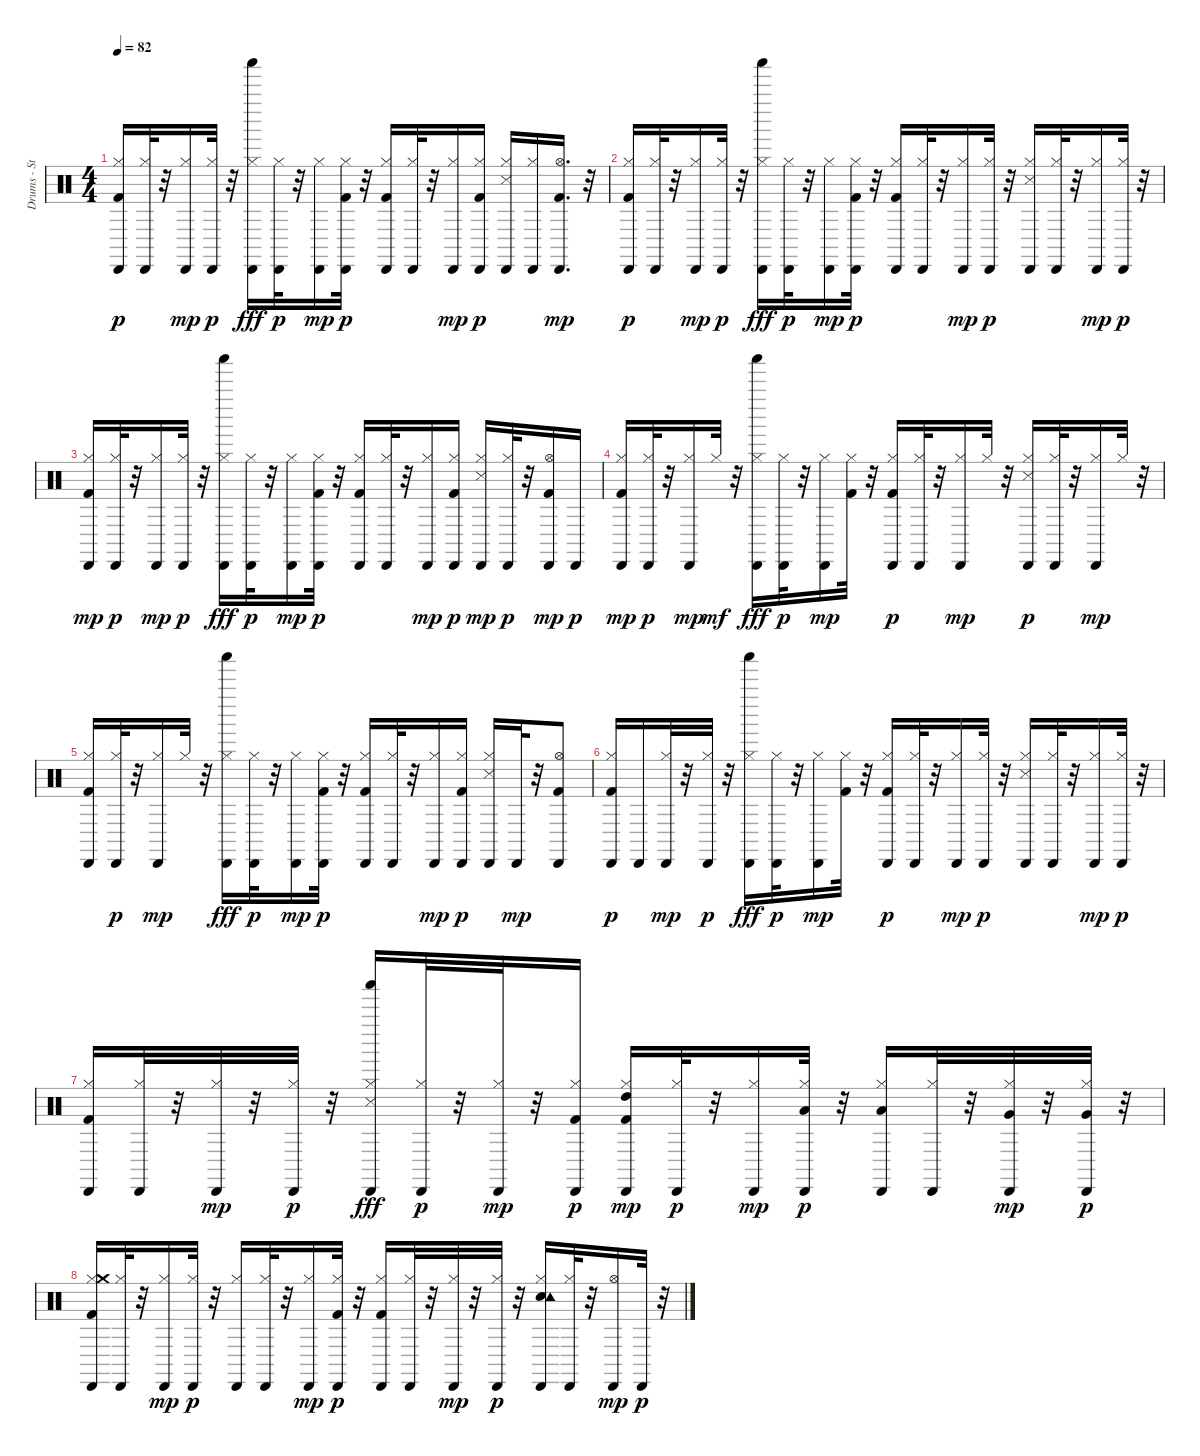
\track ("Drums - Standard" "Drums - St") {instrument percussion}
\staff {score}
\articulation defaults
\ts (4 4)
\tempo 82
\clef neutral
\ks c
("Kick (hit) 2" "Hi-Hat (closed)" "Cabasa (hit)").16{dy p} ("Hi-Hat (closed)" "Cabasa (hit)").32 r.32 ("Hi-Hat (closed)" "Cabasa (hit)").16{dy mp} ("Hi-Hat (closed)" "Cabasa (hit)").32{dy p} r.32 ("Hi-Hat (closed)" "Cabasa (hit)" "Shaker (hit)").16{dy fff} ("Hi-Hat (closed)" "Cabasa (hit)").32{dy p} r.32 ("Hi-Hat (closed)" "Cabasa (hit)").16{dy mp} ("Kick (hit) 2" "Hi-Hat (closed)" "Cabasa (hit)").32{dy p} r.32 ("Kick (hit) 2" "Hi-Hat (closed)" "Cabasa (hit)").16 ("Hi-Hat (closed)" "Cabasa (hit)").32 r.32 ("Hi-Hat (closed)" "Cabasa (hit)").16{dy mp} ("Kick (hit) 2" "Hi-Hat (closed)" "Cabasa (hit)").16{dy p} ("Snare (side stick) 3" "Hi-Hat (closed)" "Cabasa (hit)").16 ("Hi-Hat (closed)" "Cabasa (hit)").16 ("Kick (hit) 2" "Hi-Hat (open)" "Cabasa (hit)").16{d dy mp} r.32 |
("Kick (hit) 2" "Hi-Hat (closed)" "Cabasa (hit)").16{dy p} ("Hi-Hat (closed)" "Cabasa (hit)").32 r.32 ("Hi-Hat (closed)" "Cabasa (hit)").16{dy mp} ("Hi-Hat (closed)" "Cabasa (hit)").32{dy p} r.32 ("Hi-Hat (closed)" "Cabasa (hit)" "Shaker (hit)").16{dy fff} ("Hi-Hat (closed)" "Cabasa (hit)").32{dy p} r.32 ("Hi-Hat (closed)" "Cabasa (hit)").16{dy mp} ("Kick (hit) 2" "Hi-Hat (closed)" "Cabasa (hit)").32{dy p} r.32 ("Kick (hit) 2" "Hi-Hat (closed)" "Cabasa (hit)").16 ("Hi-Hat (closed)" "Cabasa (hit)").32 r.32 ("Hi-Hat (closed)" "Cabasa (hit)").16{dy mp} ("Hi-Hat (closed)" "Cabasa (hit)").32{dy p} r.32 ("Snare (side stick) 3" "Hi-Hat (closed)" "Cabasa (hit)").16 ("Hi-Hat (closed)" "Cabasa (hit)").32 r.32 ("Hi-Hat (closed)" "Cabasa (hit)").16{dy mp} ("Hi-Hat (closed)" "Cabasa (hit)").32{dy p} r.32 |
("Kick (hit) 2" "Hi-Hat (closed)" "Cabasa (hit)").16{dy mp} ("Hi-Hat (closed)" "Cabasa (hit)").32{dy p} r.32 ("Hi-Hat (closed)" "Cabasa (hit)").16{dy mp} ("Hi-Hat (closed)" "Cabasa (hit)").32{dy p} r.32 ("Hi-Hat (closed)" "Cabasa (hit)" "Shaker (hit)").16{dy fff} ("Hi-Hat (closed)" "Cabasa (hit)").32{dy p} r.32 ("Hi-Hat (closed)" "Cabasa (hit)").16{dy mp} ("Kick (hit) 2" "Hi-Hat (closed)" "Cabasa (hit)").32{dy p} r.32 ("Kick (hit) 2" "Hi-Hat (closed)" "Cabasa (hit)").16 ("Hi-Hat (closed)" "Cabasa (hit)").32 r.32 ("Hi-Hat (closed)" "Cabasa (hit)").16{dy mp} ("Kick (hit) 2" "Hi-Hat (closed)" "Cabasa (hit)").16{dy p} ("Snare (side stick) 3" "Hi-Hat (closed)" "Cabasa (hit)").16{dy mp} ("Hi-Hat (closed)" "Cabasa (hit)").32{dy p} r.32 ("Kick (hit) 2" "Hi-Hat (open)" "Cabasa (hit)").16{dy mp} "Cabasa (hit)".16{dy p} |
("Kick (hit) 2" "Hi-Hat (closed)" "Cabasa (hit)").16{dy mp} ("Hi-Hat (closed)" "Cabasa (hit)").32{dy p} r.32 ("Hi-Hat (closed)" "Cabasa (hit)").16{dy mp} "Hi-Hat (closed)".32{dy mf} r.32 ("Hi-Hat (closed)" "Cabasa (hit)" "Shaker (hit)").16{dy fff} ("Hi-Hat (closed)" "Cabasa (hit)").32{dy p} r.32 ("Hi-Hat (closed)" "Cabasa (hit)").16{dy mp} ("Kick (hit) 2" "Hi-Hat (closed)").32 r.32 ("Kick (hit) 2" "Hi-Hat (closed)" "Cabasa (hit)").16{dy p} ("Hi-Hat (closed)" "Cabasa (hit)").32 r.32 ("Hi-Hat (closed)" "Cabasa (hit)").16{dy mp} "Hi-Hat (closed)".32 r.32 ("Snare (side stick) 3" "Hi-Hat (closed)" "Cabasa (hit)").16{dy p} ("Hi-Hat (closed)" "Cabasa (hit)").32 r.32 ("Hi-Hat (closed)" "Cabasa (hit)").16{dy mp} "Hi-Hat (closed)".32 r.32 |
("Kick (hit) 2" "Hi-Hat (closed)" "Cabasa (hit)").16 ("Hi-Hat (closed)" "Cabasa (hit)").32{dy p} r.32 ("Hi-Hat (closed)" "Cabasa (hit)").16{dy mp} "Hi-Hat (closed)".32 r.32 ("Hi-Hat (closed)" "Cabasa (hit)" "Shaker (hit)").16{dy fff} ("Hi-Hat (closed)" "Cabasa (hit)").32{dy p} r.32 ("Hi-Hat (closed)" "Cabasa (hit)").16{dy mp} ("Kick (hit) 2" "Hi-Hat (closed)" "Cabasa (hit)").32{dy p} r.32 ("Kick (hit) 2" "Hi-Hat (closed)" "Cabasa (hit)").16 ("Hi-Hat (closed)" "Cabasa (hit)").32 r.32 ("Hi-Hat (closed)" "Cabasa (hit)").16{dy mp} ("Kick (hit) 2" "Hi-Hat (closed)" "Cabasa (hit)").16{dy p} ("Snare (side stick) 3" "Hi-Hat (closed)" "Cabasa (hit)").16 "Cabasa (hit)".32{dy mp} r.32 ("Kick (hit) 2" "Hi-Hat (open)" "Cabasa (hit)").8 |
("Kick (hit) 2" "Hi-Hat (closed)" "Cabasa (hit)").16{dy p} "Cabasa (hit)".16 ("Hi-Hat (closed)" "Cabasa (hit)").32{dy mp} r.32 ("Hi-Hat (closed)" "Cabasa (hit)").32{dy p} r.32 ("Hi-Hat (closed)" "Cabasa (hit)" "Shaker (hit)").16{dy fff} ("Hi-Hat (closed)" "Cabasa (hit)").32{dy p} r.32 ("Hi-Hat (closed)" "Cabasa (hit)").16{dy mp} ("Kick (hit) 2" "Hi-Hat (closed)").32 r.32 ("Kick (hit) 2" "Hi-Hat (closed)" "Cabasa (hit)").16{dy p} ("Hi-Hat (closed)" "Cabasa (hit)").32 r.32 ("Hi-Hat (closed)" "Cabasa (hit)").16{dy mp} ("Hi-Hat (closed)" "Cabasa (hit)").32{dy p} r.32 ("Snare (side stick) 3" "Hi-Hat (closed)" "Cabasa (hit)").16 ("Hi-Hat (closed)" "Cabasa (hit)").32 r.32 ("Hi-Hat (closed)" "Cabasa (hit)").16{dy mp} ("Hi-Hat (closed)" "Cabasa (hit)").32{dy p} r.32 |
("Kick (hit) 2" "Hi-Hat (closed)" "Cabasa (hit)").16 ("Hi-Hat (closed)" "Cabasa (hit)").32 r.32 ("Hi-Hat (closed)" "Cabasa (hit)").32{dy mp} r.32 ("Hi-Hat (closed)" "Cabasa (hit)").32{dy p} r.32 ("Snare (side stick) 3" "Hi-Hat (closed)" "Cabasa (hit)" "Shaker (hit)").16{dy fff} ("Hi-Hat (closed)" "Cabasa (hit)").32{dy p} r.32 ("Hi-Hat (closed)" "Cabasa (hit)").32{dy mp} r.32 ("Kick (hit) 2" "Hi-Hat (closed)" "Cabasa (hit)").16{dy p} ("Kick (hit) 2" "Hi-Hat (closed)" "High Tom (hit)" "Cabasa (hit)").16{dy mp} ("Hi-Hat (closed)" "Cabasa (hit)").32{dy p} r.32 ("Hi-Hat (closed)" "Cabasa (hit)").16{dy mp} ("Hi-Hat (closed)" "Low Tom (hit)" "Cabasa (hit)").32{dy p} r.32 ("Hi-Hat (closed)" "Low Tom (hit)" "Cabasa (hit)").16 ("Hi-Hat (closed)" "Cabasa (hit)").32 r.32 ("Hi-Hat (closed)" "Very Low Tom (hit)" "Cabasa (hit)").32{dy mp} r.32 ("Hi-Hat (closed)" "Very Low Tom (hit)" "Cabasa (hit)").32{dy p} r.32 |
("Kick (hit) 2" "Hi-Hat (closed)" "Crash medium (hit)" "Cabasa (hit)").16 ("Hi-Hat (closed)" "Cabasa (hit)").32 r.32 ("Hi-Hat (closed)" "Cabasa (hit)").16{dy mp} ("Hi-Hat (closed)" "Cabasa (hit)").32{dy p} r.32 ("Hi-Hat (closed)" "Cabasa (hit)").16 ("Hi-Hat (closed)" "Cabasa (hit)").32 r.32 ("Hi-Hat (closed)" "Cabasa (hit)").16{dy mp} ("Kick (hit) 2" "Hi-Hat (closed)" "Cabasa (hit)").32{dy p} r.32 ("Kick (hit) 2" "Hi-Hat (closed)" "Cabasa (hit)").16 ("Hi-Hat (closed)" "Cabasa (hit)").32 r.32 ("Hi-Hat (closed)" "Cabasa (hit)").32{dy mp} r.32 ("Hi-Hat (closed)" "Cabasa (hit)").32{dy p} r.32 ("Electric Snare (hit)" "Hi-Hat (closed)" "Tambourine (hit)" "Cabasa (hit)").16 ("Hi-Hat (closed)" "Cabasa (hit)").32 r.32 ("Hi-Hat (open)" "Cabasa (hit)").16{dy mp} "Cabasa (hit)".32{dy p} r.32
